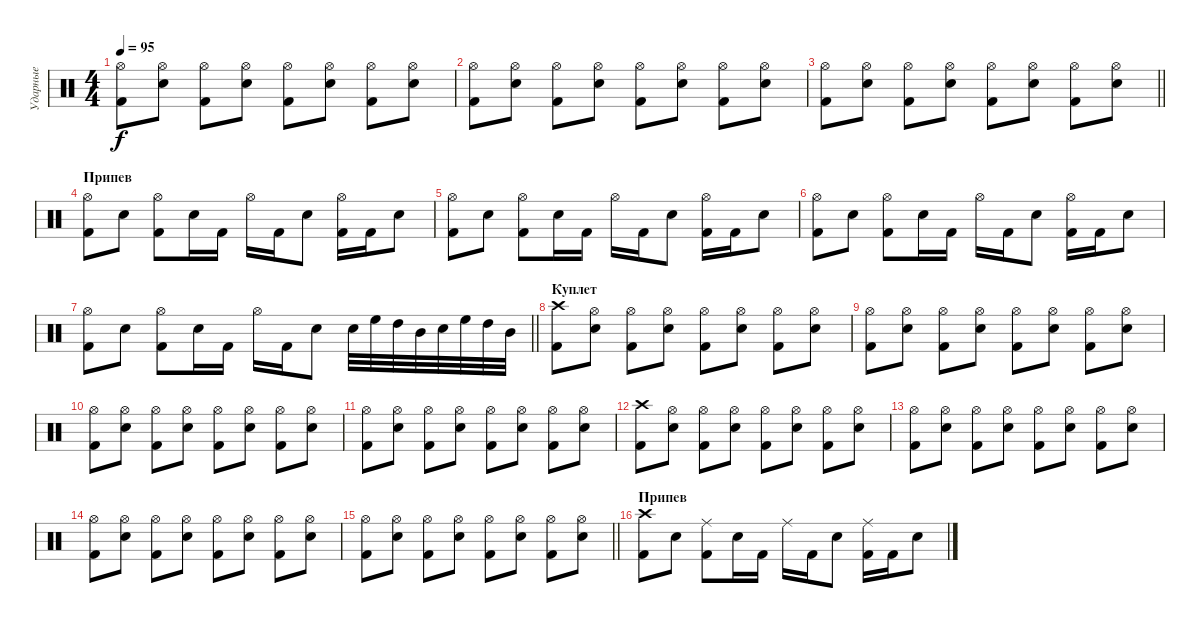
\track ("Ударные" "Ударные") {instrument percussion}
\staff {score}
\articulation defaults
\ts (4 4)
\tempo 95
\clef neutral
\ks c
("Kick (hit) 2" "Hi-Hat (open)").8{dy f} ("Electric Snare (hit)" "Hi-Hat (open)").8 ("Kick (hit) 2" "Hi-Hat (open)").8 ("Electric Snare (hit)" "Hi-Hat (open)").8 ("Kick (hit) 2" "Hi-Hat (open)").8 ("Electric Snare (hit)" "Hi-Hat (open)").8 ("Kick (hit) 2" "Hi-Hat (open)").8 ("Electric Snare (hit)" "Hi-Hat (open)").8 |
("Kick (hit) 2" "Hi-Hat (open)").8 ("Electric Snare (hit)" "Hi-Hat (open)").8 ("Kick (hit) 2" "Hi-Hat (open)").8 ("Electric Snare (hit)" "Hi-Hat (open)").8 ("Kick (hit) 2" "Hi-Hat (open)").8 ("Electric Snare (hit)" "Hi-Hat (open)").8 ("Kick (hit) 2" "Hi-Hat (open)").8 ("Electric Snare (hit)" "Hi-Hat (open)").8 |
\barLineRight lightlight
("Kick (hit) 2" "Hi-Hat (open)").8 ("Electric Snare (hit)" "Hi-Hat (open)").8 ("Kick (hit) 2" "Hi-Hat (open)").8 ("Electric Snare (hit)" "Hi-Hat (open)").8 ("Kick (hit) 2" "Hi-Hat (open)").8 ("Electric Snare (hit)" "Hi-Hat (open)").8 ("Kick (hit) 2" "Hi-Hat (open)").8 ("Electric Snare (hit)" "Hi-Hat (open)").8 |
\section ("" "Припев")
("Kick (hit) 2" "Hi-Hat (open)").8 "Electric Snare (hit)".8 ("Kick (hit) 2" "Hi-Hat (open)").8 "Electric Snare (hit)".16 "Kick (hit) 2".16 "Hi-Hat (open)".16 "Kick (hit) 2".16 "Electric Snare (hit)".8 ("Kick (hit) 2" "Hi-Hat (open)").16 "Kick (hit) 2".16 "Electric Snare (hit)".8 |
("Kick (hit) 2" "Hi-Hat (open)").8 "Electric Snare (hit)".8 ("Kick (hit) 2" "Hi-Hat (open)").8 "Electric Snare (hit)".16 "Kick (hit) 2".16 "Hi-Hat (open)".16 "Kick (hit) 2".16 "Electric Snare (hit)".8 ("Kick (hit) 2" "Hi-Hat (open)").16 "Kick (hit) 2".16 "Electric Snare (hit)".8 |
("Kick (hit) 2" "Hi-Hat (open)").8 "Electric Snare (hit)".8 ("Kick (hit) 2" "Hi-Hat (open)").8 "Electric Snare (hit)".16 "Kick (hit) 2".16 "Hi-Hat (open)".16 "Kick (hit) 2".16 "Electric Snare (hit)".8 ("Kick (hit) 2" "Hi-Hat (open)").16 "Kick (hit) 2".16 "Electric Snare (hit)".8 |
\barLineRight lightlight
("Kick (hit) 2" "Hi-Hat (open)").8 "Electric Snare (hit)".8 ("Kick (hit) 2" "Hi-Hat (open)").8 "Electric Snare (hit)".16 "Kick (hit) 2".16 "Hi-Hat (open)".16 "Kick (hit) 2".16 "Electric Snare (hit)".8 "Electric Snare (hit)".32 "High Floor Tom (hit)".32 "High Tom (hit)".32 "Mid Tom (hit)".32 "Electric Snare (hit)".32 "High Floor Tom (hit)".32 "High Tom (hit)".32 "Mid Tom (hit)".32 |
\section ("" "Куплет")
("Kick (hit) 2" "Crash high (hit)").8 ("Electric Snare (hit)" "Hi-Hat (open)").8 ("Kick (hit) 2" "Hi-Hat (open)").8 ("Electric Snare (hit)" "Hi-Hat (open)").8 ("Kick (hit) 2" "Hi-Hat (open)").8 ("Electric Snare (hit)" "Hi-Hat (open)").8 ("Kick (hit) 2" "Hi-Hat (open)").8 ("Electric Snare (hit)" "Hi-Hat (open)").8 |
("Kick (hit) 2" "Hi-Hat (open)").8 ("Electric Snare (hit)" "Hi-Hat (open)").8 ("Kick (hit) 2" "Hi-Hat (open)").8 ("Electric Snare (hit)" "Hi-Hat (open)").8 ("Kick (hit) 2" "Hi-Hat (open)").8 ("Electric Snare (hit)" "Hi-Hat (open)").8 ("Kick (hit) 2" "Hi-Hat (open)").8 ("Electric Snare (hit)" "Hi-Hat (open)").8 |
("Kick (hit) 2" "Hi-Hat (open)").8 ("Electric Snare (hit)" "Hi-Hat (open)").8 ("Kick (hit) 2" "Hi-Hat (open)").8 ("Electric Snare (hit)" "Hi-Hat (open)").8 ("Kick (hit) 2" "Hi-Hat (open)").8 ("Electric Snare (hit)" "Hi-Hat (open)").8 ("Kick (hit) 2" "Hi-Hat (open)").8 ("Electric Snare (hit)" "Hi-Hat (open)").8 |
("Kick (hit) 2" "Hi-Hat (open)").8 ("Electric Snare (hit)" "Hi-Hat (open)").8 ("Kick (hit) 2" "Hi-Hat (open)").8 ("Electric Snare (hit)" "Hi-Hat (open)").8 ("Kick (hit) 2" "Hi-Hat (open)").8 ("Electric Snare (hit)" "Hi-Hat (open)").8 ("Kick (hit) 2" "Hi-Hat (open)").8 ("Electric Snare (hit)" "Hi-Hat (open)").8 |
("Kick (hit) 2" "Crash high (hit)").8 ("Electric Snare (hit)" "Hi-Hat (open)").8 ("Kick (hit) 2" "Hi-Hat (open)").8 ("Electric Snare (hit)" "Hi-Hat (open)").8 ("Kick (hit) 2" "Hi-Hat (open)").8 ("Electric Snare (hit)" "Hi-Hat (open)").8 ("Kick (hit) 2" "Hi-Hat (open)").8 ("Electric Snare (hit)" "Hi-Hat (open)").8 |
("Kick (hit) 2" "Hi-Hat (open)").8 ("Electric Snare (hit)" "Hi-Hat (open)").8 ("Kick (hit) 2" "Hi-Hat (open)").8 ("Electric Snare (hit)" "Hi-Hat (open)").8 ("Kick (hit) 2" "Hi-Hat (open)").8 ("Electric Snare (hit)" "Hi-Hat (open)").8 ("Kick (hit) 2" "Hi-Hat (open)").8 ("Electric Snare (hit)" "Hi-Hat (open)").8 |
("Kick (hit) 2" "Hi-Hat (open)").8 ("Electric Snare (hit)" "Hi-Hat (open)").8 ("Kick (hit) 2" "Hi-Hat (open)").8 ("Electric Snare (hit)" "Hi-Hat (open)").8 ("Kick (hit) 2" "Hi-Hat (open)").8 ("Electric Snare (hit)" "Hi-Hat (open)").8 ("Kick (hit) 2" "Hi-Hat (open)").8 ("Electric Snare (hit)" "Hi-Hat (open)").8 |
\barLineRight lightlight
("Kick (hit) 2" "Hi-Hat (open)").8 ("Electric Snare (hit)" "Hi-Hat (open)").8 ("Kick (hit) 2" "Hi-Hat (open)").8 ("Electric Snare (hit)" "Hi-Hat (open)").8 ("Kick (hit) 2" "Hi-Hat (open)").8 ("Electric Snare (hit)" "Hi-Hat (open)").8 ("Kick (hit) 2" "Hi-Hat (open)").8 ("Electric Snare (hit)" "Hi-Hat (open)").8 |
\section ("" "Припев")
("Kick (hit) 2" "Crash high (hit)").8 "Electric Snare (hit)".8 ("Kick (hit) 2" "Ride (middle)").8 "Electric Snare (hit)".16 "Kick (hit) 2".16 "Ride (middle)".16 "Kick (hit) 2".16 "Electric Snare (hit)".8 ("Kick (hit) 2" "Ride (middle)").16 "Kick (hit) 2".16 "Electric Snare (hit)".8
